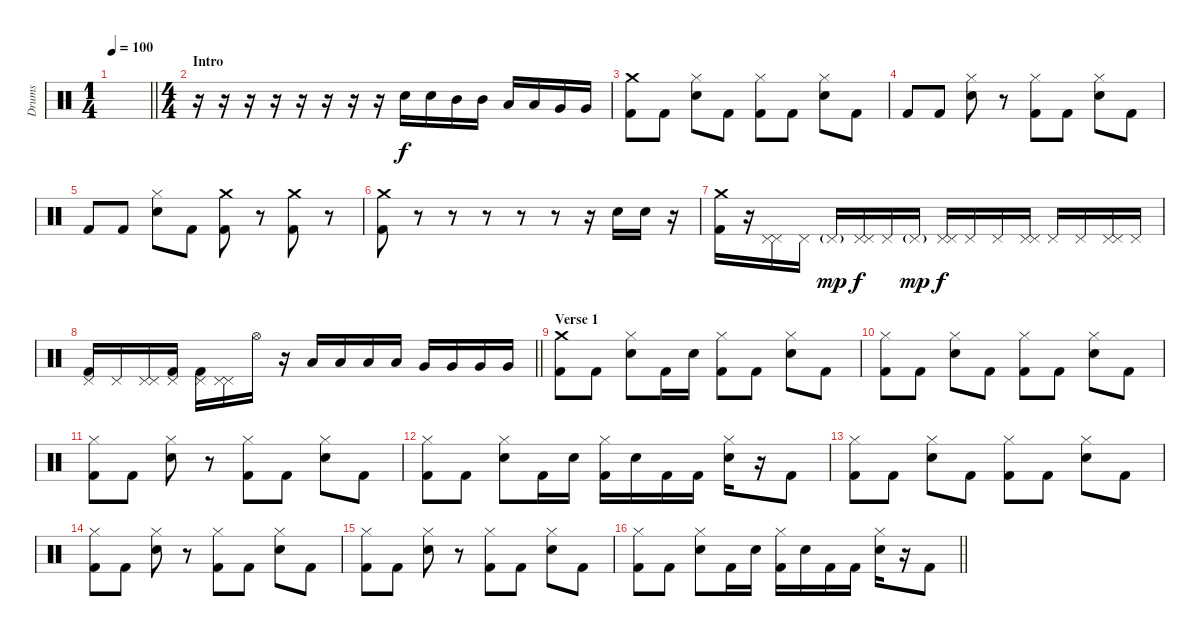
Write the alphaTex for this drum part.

\track ("Drums" "Drums") {instrument percussion}
\staff {score}
\articulation defaults
\ts (1 4)
\tempo 100
\clef neutral
\barLineRight lightlight
\ks c
|
\ts (4 4)
\section ("" "Intro")
r.16 r.16 r.16 r.16 r.16 r.16 r.16 r.16 "Snare (hit) 2".16 "Snare (hit) 2".16 "Mid Tom (hit)".16 "Mid Tom (hit)".16 "Low Tom (hit)".16 "Low Tom (hit)".16 "Very Low Tom (hit)".16 "Very Low Tom (hit)".16 |
("Crash medium (hit)" "Kick (hit) 2").8 "Kick (hit) 2".8 ("Hi-Hat (closed)" "Snare (hit) 2").8 "Kick (hit) 2".8 ("Hi-Hat (closed)" "Kick (hit) 2").8 "Kick (hit) 2".8 ("Hi-Hat (closed)" "Snare (hit) 2").8 "Kick (hit) 2".8 |
"Kick (hit) 2".8 "Kick (hit) 2".8 ("Hi-Hat (closed)" "Snare (hit) 2").8 r.8 ("Hi-Hat (closed)" "Kick (hit) 2").8 "Kick (hit) 2".8 ("Hi-Hat (closed)" "Snare (hit) 2").8 "Kick (hit) 2".8 |
"Kick (hit) 2".8 "Kick (hit) 2".8 ("Hi-Hat (closed)" "Snare (hit) 2").8 "Kick (hit) 2".8 ("Crash medium (hit)" "Kick (hit) 2").8 r.8 ("Crash medium (hit)" "Kick (hit) 2").8 r.8 |
("Crash medium (hit)" "Kick (hit) 2").8 r.8 r.8 r.8 r.8 r.8 r.16 "Snare (hit) 2".16 "Snare (hit) 2".16 r.16 |
("Crash medium (hit)" "Kick (hit) 2").16 r.16 ("Pedal Hi-Hat (hit)" "Pedal Hi-Hat (hit)").16 "Pedal Hi-Hat (hit)".16 "Pedal Hi-Hat (hit)"{g}.16{dy mp} ("Pedal Hi-Hat (hit)" "Pedal Hi-Hat (hit)").16{dy f} "Pedal Hi-Hat (hit)".16 "Pedal Hi-Hat (hit)"{g}.16{dy mp} ("Pedal Hi-Hat (hit)" "Pedal Hi-Hat (hit)").16{dy f} "Pedal Hi-Hat (hit)".16 "Pedal Hi-Hat (hit)".16 ("Pedal Hi-Hat (hit)" "Pedal Hi-Hat (hit)").16 "Pedal Hi-Hat (hit)".16 "Pedal Hi-Hat (hit)".16 ("Pedal Hi-Hat (hit)" "Pedal Hi-Hat (hit)").16 "Pedal Hi-Hat (hit)".16 |
\barLineRight lightlight
("Pedal Hi-Hat (hit)" "Kick (hit) 2").16 "Pedal Hi-Hat (hit)".16 ("Pedal Hi-Hat (hit)" "Pedal Hi-Hat (hit)").16 ("Pedal Hi-Hat (hit)" "Kick (hit) 2").16 ("Pedal Hi-Hat (hit)" "Kick (hit) 2").16 ("Pedal Hi-Hat (hit)" "Pedal Hi-Hat (hit)").16 "Hi-Hat (open)".16 r.16 "Low Tom (hit)".16 "Low Tom (hit)".16 "Low Tom (hit)".16 "Low Tom (hit)".16 "Very Low Tom (hit)".16 "Very Low Tom (hit)".16 "Very Low Tom (hit)".16 "Very Low Tom (hit)".16 |
\section ("" "Verse 1")
("Crash medium (hit)" "Kick (hit) 2").8 "Kick (hit) 2".8 ("Hi-Hat (closed)" "Snare (hit) 2").8 "Kick (hit) 2".16 "Snare (hit) 2".16 ("Hi-Hat (closed)" "Kick (hit) 2").8 "Kick (hit) 2".8 ("Hi-Hat (closed)" "Snare (hit) 2").8 "Kick (hit) 2".8 |
("Hi-Hat (closed)" "Kick (hit) 2").8 "Kick (hit) 2".8 ("Hi-Hat (closed)" "Snare (hit) 2").8 "Kick (hit) 2".8 ("Hi-Hat (closed)" "Kick (hit) 2").8 "Kick (hit) 2".8 ("Hi-Hat (closed)" "Snare (hit) 2").8 "Kick (hit) 2".8 |
("Hi-Hat (closed)" "Kick (hit) 2").8 "Kick (hit) 2".8 ("Hi-Hat (closed)" "Snare (hit) 2").8 r.8 ("Hi-Hat (closed)" "Kick (hit) 2").8 "Kick (hit) 2".8 ("Hi-Hat (closed)" "Snare (hit) 2").8 "Kick (hit) 2".8 |
("Hi-Hat (closed)" "Kick (hit) 2").8 "Kick (hit) 2".8 ("Hi-Hat (closed)" "Snare (hit) 2").8 "Kick (hit) 2".16 "Snare (hit) 2".16 ("Hi-Hat (closed)" "Kick (hit) 2").16 "Snare (hit) 2".16 "Kick (hit) 2".16 "Kick (hit) 2".16 ("Hi-Hat (closed)" "Snare (hit) 2").16 r.16 "Kick (hit) 2".8 |
("Hi-Hat (closed)" "Kick (hit) 2").8 "Kick (hit) 2".8 ("Hi-Hat (closed)" "Snare (hit) 2").8 "Kick (hit) 2".8 ("Hi-Hat (closed)" "Kick (hit) 2").8 "Kick (hit) 2".8 ("Hi-Hat (closed)" "Snare (hit) 2").8 "Kick (hit) 2".8 |
("Hi-Hat (closed)" "Kick (hit) 2").8 "Kick (hit) 2".8 ("Hi-Hat (closed)" "Snare (hit) 2").8 r.8 ("Hi-Hat (closed)" "Kick (hit) 2").8 "Kick (hit) 2".8 ("Hi-Hat (closed)" "Snare (hit) 2").8 "Kick (hit) 2".8 |
("Hi-Hat (closed)" "Kick (hit) 2").8 "Kick (hit) 2".8 ("Hi-Hat (closed)" "Snare (hit) 2").8 r.8 ("Hi-Hat (closed)" "Kick (hit) 2").8 "Kick (hit) 2".8 ("Hi-Hat (closed)" "Snare (hit) 2").8 "Kick (hit) 2".8 |
\barLineRight lightlight
("Hi-Hat (closed)" "Kick (hit) 2").8 "Kick (hit) 2".8 ("Hi-Hat (closed)" "Snare (hit) 2").8 "Kick (hit) 2".16 "Snare (hit) 2".16 ("Hi-Hat (closed)" "Kick (hit) 2").16 "Snare (hit) 2".16 "Kick (hit) 2".16 "Kick (hit) 2".16 ("Hi-Hat (closed)" "Snare (hit) 2").16 r.16 "Kick (hit) 2".8
